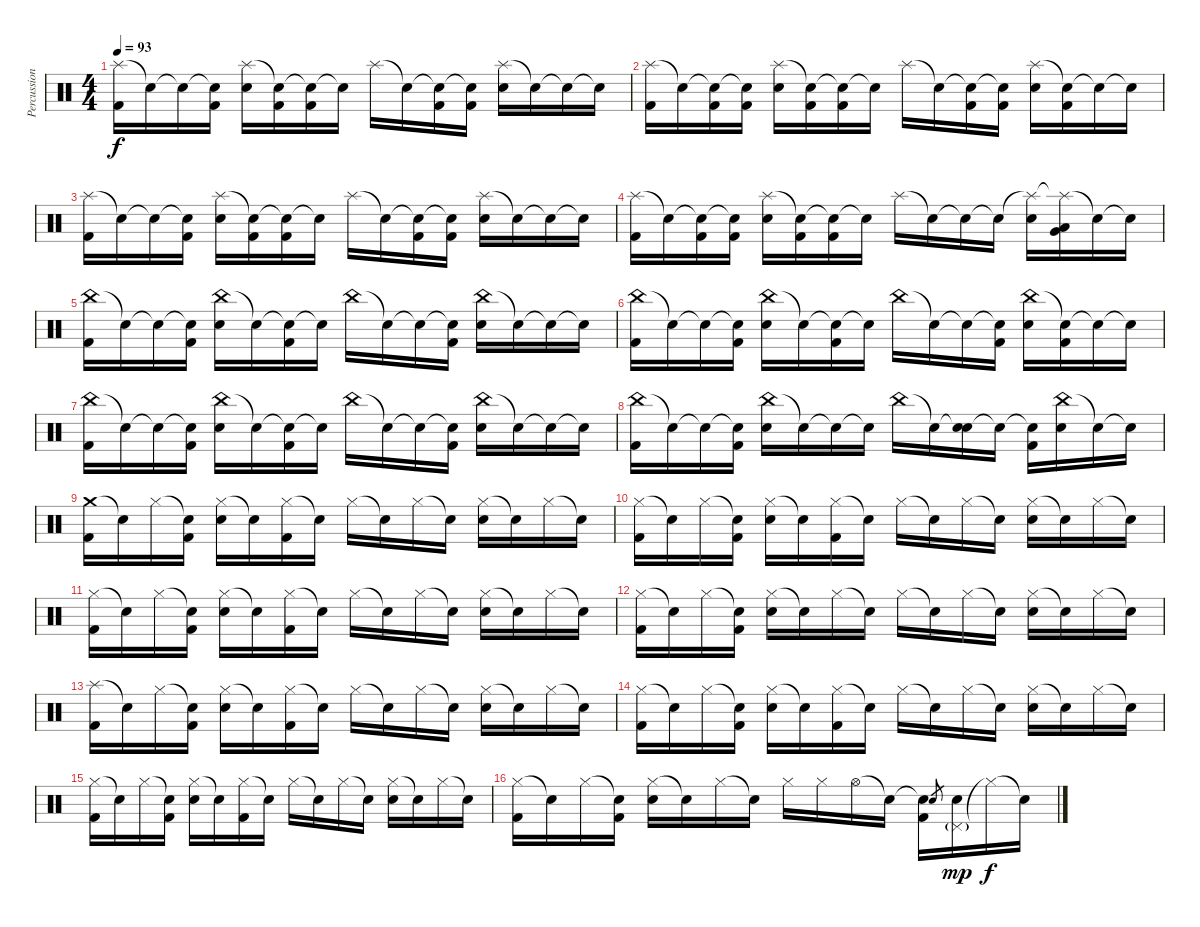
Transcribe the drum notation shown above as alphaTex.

\track ("Percussion" "Percussion") {instrument percussion}
\staff {score}
\articulation defaults
\ts (4 4)
\tempo 93
\clef neutral
\ks c
("Splash (hit)" "Kick (hit) 2").16{dy f} "Snare (hit)"{t}.16 "Snare (hit)"{t}.16 ("Snare (hit)"{t} "Kick (hit) 2").16 ("Splash (hit)" "Electric Snare (hit)").16 ("Snare (hit)"{t} "Kick (hit) 2").16 ("Snare (hit)"{t} "Kick (hit) 2").16 "Snare (hit)"{t}.16 "Splash (hit)".16 "Snare (hit)"{t}.16 ("Snare (hit)"{t} "Kick (hit) 2").16 ("Snare (hit)"{t} "Kick (hit) 2").16 ("Splash (hit)" "Electric Snare (hit)").16 "Snare (hit)"{t}.16 "Snare (hit)"{t}.16 "Snare (hit)"{t}.16 |
("Splash (hit)" "Kick (hit) 2").16 "Snare (hit)"{t}.16 ("Snare (hit)"{t} "Kick (hit) 2").16 ("Snare (hit)"{t} "Kick (hit) 2").16 ("Splash (hit)" "Electric Snare (hit)").16 ("Snare (hit)"{t} "Kick (hit) 2").16 ("Snare (hit)"{t} "Kick (hit) 2").16 "Snare (hit)"{t}.16 "Splash (hit)".16 "Snare (hit)"{t}.16 ("Snare (hit)"{t} "Kick (hit) 2").16 ("Snare (hit)"{t} "Kick (hit) 2").16 ("Splash (hit)" "Electric Snare (hit)").16 ("Snare (hit)"{t} "Kick (hit) 2").16 "Snare (hit)"{t}.16 "Snare (hit)"{t}.16 |
("Splash (hit)" "Kick (hit) 2").16 "Snare (hit)"{t}.16 "Snare (hit)"{t}.16 ("Snare (hit)"{t} "Kick (hit) 2").16 ("Splash (hit)" "Electric Snare (hit)").16 ("Snare (hit)"{t} "Kick (hit) 2").16 ("Snare (hit)"{t} "Kick (hit) 2").16 "Snare (hit)"{t}.16 "Splash (hit)".16 "Snare (hit)"{t}.16 ("Snare (hit)"{t} "Kick (hit) 2").16 ("Snare (hit)"{t} "Kick (hit) 2").16 ("Splash (hit)" "Electric Snare (hit)").16 "Snare (hit)"{t}.16 "Snare (hit)"{t}.16 "Snare (hit)"{t}.16 |
("Splash (hit)" "Kick (hit) 2").16 "Snare (hit)"{t}.16 ("Snare (hit)"{t} "Kick (hit) 2").16 ("Snare (hit)"{t} "Kick (hit) 2").16 ("Splash (hit)" "Electric Snare (hit)").16 ("Snare (hit)"{t} "Kick (hit) 2").16 ("Snare (hit)"{t} "Kick (hit) 2").16 "Snare (hit)"{t}.16 "Splash (hit)".16 "Snare (hit)"{t}.16 "Snare (hit)"{t}.16 "Snare (hit)"{t}.16 ("Splash (hit)"{t} "Electric Snare (hit)").16 ("Splash (hit)"{t} "Low Floor Tom (hit)" "Very Low Tom (hit)").16 "Snare (hit)"{t}.16 "Snare (hit)"{t}.16 |
("China (hit)" "Kick (hit) 2").16 "Snare (hit)"{t}.16 "Snare (hit)"{t}.16 ("Snare (hit)"{t} "Kick (hit) 2").16 ("China (hit)" "Electric Snare (hit)").16 "Snare (hit)"{t}.16 ("Snare (hit)"{t} "Kick (hit) 2").16 "Snare (hit)"{t}.16 "China (hit)".16 "Snare (hit)"{t}.16 "Snare (hit)"{t}.16 ("Snare (hit)"{t} "Kick (hit) 2").16 ("China (hit)" "Electric Snare (hit)").16 "Snare (hit)"{t}.16 "Snare (hit)"{t}.16 "Snare (hit)"{t}.16 |
("China (hit)" "Kick (hit) 2").16 "Snare (hit)"{t}.16 "Snare (hit)"{t}.16 ("Snare (hit)"{t} "Kick (hit) 2").16 ("China (hit)" "Electric Snare (hit)").16 "Snare (hit)"{t}.16 ("Snare (hit)"{t} "Kick (hit) 2").16 "Snare (hit)"{t}.16 "China (hit)".16 "Snare (hit)"{t}.16 "Snare (hit)"{t}.16 ("Snare (hit)"{t} "Kick (hit) 2").16 ("China (hit)" "Electric Snare (hit)").16 ("Snare (hit)"{t} "Kick (hit) 2").16 "Snare (hit)"{t}.16 "Snare (hit)"{t}.16 |
("China (hit)" "Kick (hit) 2").16 "Snare (hit)"{t}.16 "Snare (hit)"{t}.16 ("Snare (hit)"{t} "Kick (hit) 2").16 ("China (hit)" "Electric Snare (hit)").16 "Snare (hit)"{t}.16 ("Snare (hit)"{t} "Kick (hit) 2").16 "Snare (hit)"{t}.16 "China (hit)".16 "Snare (hit)"{t}.16 "Snare (hit)"{t}.16 ("Snare (hit)"{t} "Kick (hit) 2").16 ("China (hit)" "Electric Snare (hit)").16 "Snare (hit)"{t}.16 "Snare (hit)"{t}.16 "Snare (hit)"{t}.16 |
("China (hit)" "Kick (hit) 2").16 "Snare (hit)"{t}.16 "Snare (hit)"{t}.16 ("Snare (hit)"{t} "Kick (hit) 2").16 ("China (hit)" "Electric Snare (hit)").16 "Snare (hit)"{t}.16 "Snare (hit)"{t}.16 "Snare (hit)"{t}.16 "China (hit)".16 "Snare (hit)"{t}.16 ("Snare (hit)"{t} "Electric Snare (hit)").16 "Snare (hit)"{t}.16 ("Snare (hit)"{t} "Kick (hit) 2").16 ("China (hit)" "Electric Snare (hit)").16 "Snare (hit)"{t}.16 "Snare (hit)"{t}.16 |
("Crash medium (hit)" "Kick (hit) 2").16 "Snare (hit)"{t}.16 "Hi-Hat (closed)".16 ("Snare (hit)"{t} "Kick (hit) 2").16 ("Hi-Hat (closed)" "Electric Snare (hit)").16 "Snare (hit)"{t}.16 ("Hi-Hat (closed)" "Kick (hit) 2").16 "Snare (hit)"{t}.16 "Hi-Hat (closed)".16 "Snare (hit)"{t}.16 "Hi-Hat (closed)".16 "Snare (hit)"{t}.16 ("Hi-Hat (closed)" "Electric Snare (hit)").16 "Snare (hit)"{t}.16 "Hi-Hat (closed)".16 "Snare (hit)"{t}.16 |
("Hi-Hat (closed)" "Kick (hit) 2").16 "Snare (hit)"{t}.16 "Hi-Hat (closed)".16 ("Snare (hit)"{t} "Kick (hit) 2").16 ("Hi-Hat (closed)" "Electric Snare (hit)").16 "Snare (hit)"{t}.16 ("Hi-Hat (closed)" "Kick (hit) 2").16 "Snare (hit)"{t}.16 "Hi-Hat (closed)".16 "Snare (hit)"{t}.16 "Hi-Hat (closed)".16 "Snare (hit)"{t}.16 ("Hi-Hat (closed)" "Electric Snare (hit)").16 "Snare (hit)"{t}.16 "Hi-Hat (closed)".16 "Snare (hit)"{t}.16 |
("Hi-Hat (closed)" "Kick (hit) 2").16 "Snare (hit)"{t}.16 "Hi-Hat (closed)".16 ("Snare (hit)"{t} "Kick (hit) 2").16 ("Hi-Hat (closed)" "Electric Snare (hit)").16 "Snare (hit)"{t}.16 ("Hi-Hat (closed)" "Kick (hit) 2").16 "Snare (hit)"{t}.16 "Hi-Hat (closed)".16 "Snare (hit)"{t}.16 "Hi-Hat (closed)".16 "Snare (hit)"{t}.16 ("Hi-Hat (closed)" "Electric Snare (hit)").16 "Snare (hit)"{t}.16 "Hi-Hat (closed)".16 "Snare (hit)"{t}.16 |
("Hi-Hat (closed)" "Kick (hit) 2").16 "Snare (hit)"{t}.16 "Hi-Hat (closed)".16 ("Snare (hit)"{t} "Kick (hit) 2").16 ("Hi-Hat (closed)" "Electric Snare (hit)").16 "Snare (hit)"{t}.16 "Hi-Hat (closed)".16 "Snare (hit)"{t}.16 "Hi-Hat (closed)".16 "Snare (hit)"{t}.16 "Hi-Hat (closed)".16 "Snare (hit)"{t}.16 ("Hi-Hat (closed)" "Electric Snare (hit)").16 "Snare (hit)"{t}.16 "Hi-Hat (closed)".16 "Snare (hit)"{t}.16 |
("Splash (hit)" "Kick (hit) 2").16 "Snare (hit)"{t}.16 "Hi-Hat (closed)".16 ("Snare (hit)"{t} "Kick (hit) 2").16 ("Hi-Hat (closed)" "Electric Snare (hit)").16 "Snare (hit)"{t}.16 ("Hi-Hat (closed)" "Kick (hit) 2").16 "Snare (hit)"{t}.16 "Hi-Hat (closed)".16 "Snare (hit)"{t}.16 "Hi-Hat (closed)".16 "Snare (hit)"{t}.16 ("Hi-Hat (closed)" "Electric Snare (hit)").16 "Snare (hit)"{t}.16 "Hi-Hat (closed)".16 "Snare (hit)"{t}.16 |
("Hi-Hat (closed)" "Kick (hit) 2").16 "Snare (hit)"{t}.16 "Hi-Hat (closed)".16 ("Snare (hit)"{t} "Kick (hit) 2").16 ("Hi-Hat (closed)" "Electric Snare (hit)").16 "Snare (hit)"{t}.16 ("Hi-Hat (closed)" "Kick (hit) 2").16 "Snare (hit)"{t}.16 "Hi-Hat (closed)".16 "Snare (hit)"{t}.16 "Hi-Hat (closed)".16 "Snare (hit)"{t}.16 ("Hi-Hat (closed)" "Electric Snare (hit)").16 "Snare (hit)"{t}.16 "Hi-Hat (closed)".16 "Snare (hit)"{t}.16 |
("Hi-Hat (closed)" "Kick (hit) 2").16 "Snare (hit)"{t}.16 "Hi-Hat (closed)".16 ("Snare (hit)"{t} "Kick (hit) 2").16 ("Hi-Hat (closed)" "Electric Snare (hit)").16 "Snare (hit)"{t}.16 ("Hi-Hat (closed)" "Kick (hit) 2").16 "Snare (hit)"{t}.16 "Hi-Hat (closed)".16 "Snare (hit)"{t}.16 "Hi-Hat (closed)".16 "Snare (hit)"{t}.16 ("Hi-Hat (closed)" "Electric Snare (hit)").16 "Snare (hit)"{t}.16 "Hi-Hat (closed)".16 "Snare (hit)"{t}.16 |
("Hi-Hat (closed)" "Kick (hit) 2").16 "Snare (hit)"{t}.16 "Hi-Hat (closed)".16 ("Snare (hit)"{t} "Kick (hit) 2").16 ("Hi-Hat (closed)" "Electric Snare (hit)").16 "Snare (hit)"{t}.16 "Hi-Hat (closed)".16 "Snare (hit)"{t}.16 "Hi-Hat (closed)".16 "Hi-Hat (closed)".16 "Hi-Hat (open)".16 "Snare (hit)"{t}.16 ("Snare (hit)"{t} "Kick (hit) 2").16 "Electric Snare (hit)".8{gr} ("Pedal Hi-Hat (hit)"{g} "Electric Snare (hit)").16{dy mp} "Hi-Hat (closed)"{t}.16{dy f} "Snare (hit)"{t}.16
